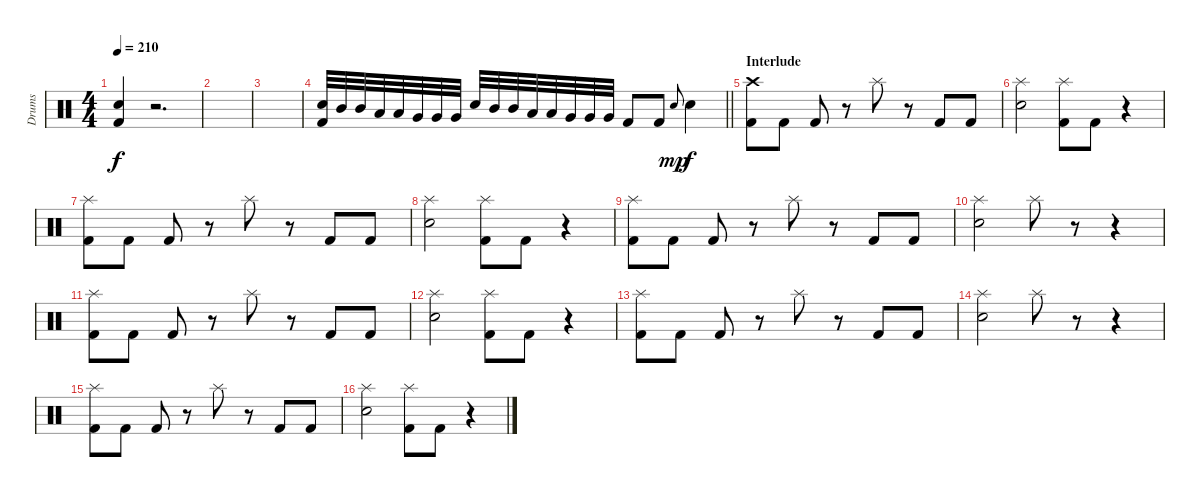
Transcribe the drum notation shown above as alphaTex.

\track ("Drums" "Drums") {instrument percussion}
\staff {score}
\articulation defaults
\ts (4 4)
\tempo 210
\clef neutral
\ks c
("Snare (hit) 2" "Kick (hit) 2").4{dy f} r.2{d} |
|
|
\barLineRight lightlight
("Snare (hit) 2" "Kick (hit) 2").32 "Mid Tom (hit)".32 "Mid Tom (hit)".32 "Low Tom (hit)".32 "Low Tom (hit)".32 "Very Low Tom (hit)".32 "Very Low Tom (hit)".32 "Very Low Tom (hit)".32 "Snare (hit) 2".32 "Mid Tom (hit)".32 "Mid Tom (hit)".32 "Low Tom (hit)".32 "Low Tom (hit)".32 "Very Low Tom (hit)".32 "Very Low Tom (hit)".32 "Very Low Tom (hit)".32 "Kick (hit) 2".8 "Kick (hit) 2".8 "Snare (hit) 2".8{gr onbeat dy mp} "Snare (hit) 2".4{dy f} |
\section ("" "Interlude")
("Crash high (hit)" "Kick (hit) 2").8 "Kick (hit) 2".8 "Kick (hit) 2".8 r.8 "Splash (hit)".8 r.8 "Kick (hit) 2".8 "Kick (hit) 2".8 |
("Splash (hit)" "Snare (hit) 2").2 ("Splash (hit)" "Kick (hit) 2").8 "Kick (hit) 2".8 r.4 |
("Splash (hit)" "Kick (hit) 2").8 "Kick (hit) 2".8 "Kick (hit) 2".8 r.8 "Splash (hit)".8 r.8 "Kick (hit) 2".8 "Kick (hit) 2".8 |
("Splash (hit)" "Snare (hit) 2").2 ("Splash (hit)" "Kick (hit) 2").8 "Kick (hit) 2".8 r.4 |
("Splash (hit)" "Kick (hit) 2").8 "Kick (hit) 2".8 "Kick (hit) 2".8 r.8 "Splash (hit)".8 r.8 "Kick (hit) 2".8 "Kick (hit) 2".8 |
("Splash (hit)" "Snare (hit) 2").2 "Splash (hit)".8 r.8 r.4 |
("Splash (hit)" "Kick (hit) 2").8 "Kick (hit) 2".8 "Kick (hit) 2".8 r.8 "Splash (hit)".8 r.8 "Kick (hit) 2".8 "Kick (hit) 2".8 |
("Splash (hit)" "Snare (hit) 2").2 ("Splash (hit)" "Kick (hit) 2").8 "Kick (hit) 2".8 r.4 |
("Splash (hit)" "Kick (hit) 2").8 "Kick (hit) 2".8 "Kick (hit) 2".8 r.8 "Splash (hit)".8 r.8 "Kick (hit) 2".8 "Kick (hit) 2".8 |
("Splash (hit)" "Snare (hit) 2").2 "Splash (hit)".8 r.8 r.4 |
("Splash (hit)" "Kick (hit) 2").8 "Kick (hit) 2".8 "Kick (hit) 2".8 r.8 "Splash (hit)".8 r.8 "Kick (hit) 2".8 "Kick (hit) 2".8 |
("Splash (hit)" "Snare (hit) 2").2 ("Splash (hit)" "Kick (hit) 2").8 "Kick (hit) 2".8 r.4
